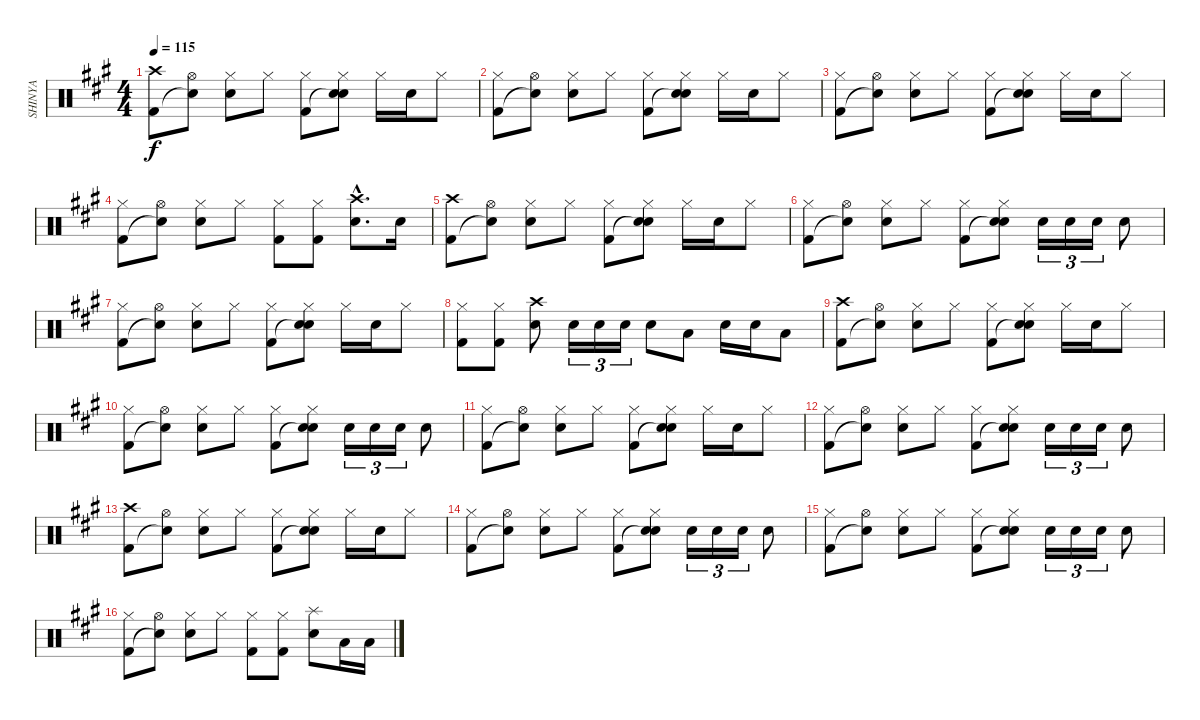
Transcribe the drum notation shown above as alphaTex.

\track ("SHINYA" "SHINYA") {instrument percussion}
\staff {score}
\articulation defaults
\ts (4 4)
\tempo 115
\clef neutral
\ks a
("Crash high (hit)" "Kick (hit) 2").8{dy f} ("Hi-Hat (open)" "Snare (hit)"{t}).8 ("Hi-Hat (closed)" "Electric Snare (hit)").8 "Hi-Hat (closed)".8 ("Hi-Hat (closed)" "Kick (hit) 2").8 ("Hi-Hat (closed)" "Snare (hit)"{t} "Electric Snare (hit)").8 "Hi-Hat (closed)".16 "Electric Snare (hit)".16 "Hi-Hat (closed)".8 |
("Hi-Hat (closed)" "Kick (hit) 2").8 ("Hi-Hat (open)" "Snare (hit)"{t}).8 ("Hi-Hat (closed)" "Electric Snare (hit)").8 "Hi-Hat (closed)".8 ("Hi-Hat (closed)" "Kick (hit) 2").8 ("Hi-Hat (closed)" "Snare (hit)"{t} "Electric Snare (hit)").8 "Hi-Hat (closed)".16 "Electric Snare (hit)".16 "Hi-Hat (closed)".8 |
("Hi-Hat (closed)" "Kick (hit) 2").8 ("Hi-Hat (open)" "Snare (hit)"{t}).8 ("Hi-Hat (closed)" "Electric Snare (hit)").8 "Hi-Hat (closed)".8 ("Hi-Hat (closed)" "Kick (hit) 2").8 ("Hi-Hat (closed)" "Snare (hit)"{t} "Electric Snare (hit)").8 "Hi-Hat (closed)".16 "Electric Snare (hit)".16 "Hi-Hat (closed)".8 |
("Hi-Hat (closed)" "Kick (hit) 2").8 ("Hi-Hat (open)" "Snare (hit)"{t}).8 ("Hi-Hat (closed)" "Electric Snare (hit)").8 "Hi-Hat (closed)".8 ("Hi-Hat (closed)" "Kick (hit) 2").8 ("Hi-Hat (closed)" "Kick (hit) 2").8 ("Crash high (hit)"{hac} "Electric Snare (hit)"{hac}).8{d} "Electric Snare (hit)".16 |
("Crash high (hit)" "Kick (hit) 2").8 ("Hi-Hat (open)" "Snare (hit)"{t}).8 ("Hi-Hat (closed)" "Electric Snare (hit)").8 "Hi-Hat (closed)".8 ("Hi-Hat (closed)" "Kick (hit) 2").8 ("Hi-Hat (closed)" "Snare (hit)"{t} "Electric Snare (hit)").8 "Hi-Hat (closed)".16 "Electric Snare (hit)".16 "Hi-Hat (closed)".8 |
("Hi-Hat (closed)" "Kick (hit) 2").8 ("Hi-Hat (open)" "Snare (hit)"{t}).8 ("Hi-Hat (closed)" "Electric Snare (hit)").8 "Hi-Hat (closed)".8 ("Hi-Hat (closed)" "Kick (hit) 2").8 ("Hi-Hat (closed)" "Snare (hit)"{t} "Electric Snare (hit)").8 "Electric Snare (hit)".16{tu (3 2)} "Electric Snare (hit)".16{tu (3 2)} "Electric Snare (hit)".16{tu (3 2)} "Electric Snare (hit)".8 |
("Hi-Hat (closed)" "Kick (hit) 2").8 ("Hi-Hat (open)" "Snare (hit)"{t}).8 ("Hi-Hat (closed)" "Electric Snare (hit)").8 "Hi-Hat (closed)".8 ("Hi-Hat (closed)" "Kick (hit) 2").8 ("Hi-Hat (closed)" "Snare (hit)"{t} "Electric Snare (hit)").8 "Hi-Hat (closed)".16 "Electric Snare (hit)".16 "Hi-Hat (closed)".8 |
("Hi-Hat (closed)" "Kick (hit) 2").8 ("Hi-Hat (closed)" "Kick (hit) 2").8 ("Crash high (hit)" "Electric Snare (hit)").8 "Electric Snare (hit)".16{tu (3 2)} "Electric Snare (hit)".16{tu (3 2)} "Electric Snare (hit)".16{tu (3 2)} "Electric Snare (hit)".8 "Low Tom (hit)".8 "Electric Snare (hit)".16 "Electric Snare (hit)".16 "Low Tom (hit)".8 |
("Crash high (hit)" "Kick (hit) 2").8 ("Hi-Hat (open)" "Snare (hit)"{t}).8 ("Hi-Hat (closed)" "Electric Snare (hit)").8 "Hi-Hat (closed)".8 ("Hi-Hat (closed)" "Kick (hit) 2").8 ("Hi-Hat (closed)" "Snare (hit)"{t} "Electric Snare (hit)").8 "Hi-Hat (closed)".16 "Electric Snare (hit)".16 "Hi-Hat (closed)".8 |
("Hi-Hat (closed)" "Kick (hit) 2").8 ("Hi-Hat (open)" "Snare (hit)"{t}).8 ("Hi-Hat (closed)" "Electric Snare (hit)").8 "Hi-Hat (closed)".8 ("Hi-Hat (closed)" "Kick (hit) 2").8 ("Hi-Hat (closed)" "Snare (hit)"{t} "Electric Snare (hit)").8 "Electric Snare (hit)".16{tu (3 2)} "Electric Snare (hit)".16{tu (3 2)} "Electric Snare (hit)".16{tu (3 2)} "Electric Snare (hit)".8 |
("Hi-Hat (closed)" "Kick (hit) 2").8 ("Hi-Hat (open)" "Snare (hit)"{t}).8 ("Hi-Hat (closed)" "Electric Snare (hit)").8 "Hi-Hat (closed)".8 ("Hi-Hat (closed)" "Kick (hit) 2").8 ("Hi-Hat (closed)" "Snare (hit)"{t} "Electric Snare (hit)").8 "Hi-Hat (closed)".16 "Electric Snare (hit)".16 "Hi-Hat (closed)".8 |
("Hi-Hat (closed)" "Kick (hit) 2").8 ("Hi-Hat (open)" "Snare (hit)"{t}).8 ("Hi-Hat (closed)" "Electric Snare (hit)").8 "Hi-Hat (closed)".8 ("Hi-Hat (closed)" "Kick (hit) 2").8 ("Hi-Hat (closed)" "Snare (hit)"{t} "Electric Snare (hit)").8 "Electric Snare (hit)".16{tu (3 2)} "Electric Snare (hit)".16{tu (3 2)} "Electric Snare (hit)".16{tu (3 2)} "Electric Snare (hit)".8 |
("Crash high (hit)" "Kick (hit) 2").8 ("Hi-Hat (open)" "Snare (hit)"{t}).8 ("Hi-Hat (closed)" "Electric Snare (hit)").8 "Hi-Hat (closed)".8 ("Hi-Hat (closed)" "Kick (hit) 2").8 ("Hi-Hat (closed)" "Snare (hit)"{t} "Electric Snare (hit)").8 "Hi-Hat (closed)".16 "Electric Snare (hit)".16 "Hi-Hat (closed)".8 |
("Hi-Hat (closed)" "Kick (hit) 2").8 ("Hi-Hat (open)" "Snare (hit)"{t}).8 ("Hi-Hat (closed)" "Electric Snare (hit)").8 "Hi-Hat (closed)".8 ("Hi-Hat (closed)" "Kick (hit) 2").8 ("Hi-Hat (closed)" "Snare (hit)"{t} "Electric Snare (hit)").8 "Electric Snare (hit)".16{tu (3 2)} "Electric Snare (hit)".16{tu (3 2)} "Electric Snare (hit)".16{tu (3 2)} "Electric Snare (hit)".8 |
("Hi-Hat (closed)" "Kick (hit) 2").8 ("Hi-Hat (open)" "Snare (hit)"{t}).8 ("Hi-Hat (closed)" "Electric Snare (hit)").8 "Hi-Hat (closed)".8 ("Hi-Hat (closed)" "Kick (hit) 2").8 ("Hi-Hat (closed)" "Snare (hit)"{t} "Electric Snare (hit)").8 "Electric Snare (hit)".16{tu (3 2)} "Electric Snare (hit)".16{tu (3 2)} "Electric Snare (hit)".16{tu (3 2)} "Electric Snare (hit)".8 |
("Hi-Hat (closed)" "Kick (hit) 2").8 ("Hi-Hat (open)" "Snare (hit)"{t}).8 ("Hi-Hat (closed)" "Electric Snare (hit)").8 "Hi-Hat (closed)".8 ("Hi-Hat (closed)" "Kick (hit) 2").8 ("Hi-Hat (closed)" "Kick (hit) 2").8 ("Splash (hit)" "Electric Snare (hit)").8 "Low Tom (hit)".16 "Low Tom (hit)".16
